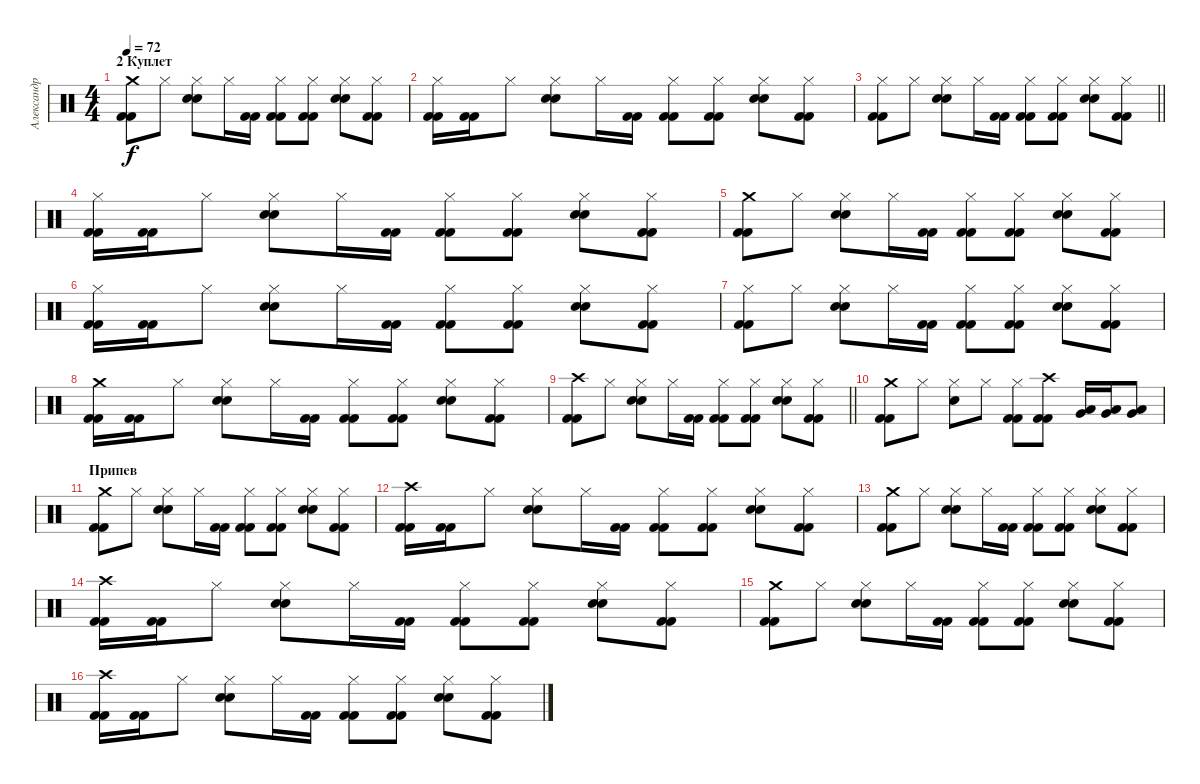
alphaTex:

\track ("Александр Манякин (Drums)" "Александр ") {instrument percussion}
\staff {score}
\articulation defaults
\ts (4 4)
\section ("" "2 Куплет")
\tempo 72
\clef neutral
\ks c
("Crash medium (hit)" "Kick (hit) 2" "Kick (hit) 2").8{dy f} "Hi-Hat (closed)".8 ("Hi-Hat (closed)" "Electric Snare (hit)" "Electric Snare (hit)").8 "Hi-Hat (closed)".16 ("Kick (hit) 2" "Kick (hit) 2").16 ("Hi-Hat (closed)" "Kick (hit) 2" "Kick (hit) 2").8 ("Hi-Hat (closed)" "Kick (hit) 2" "Kick (hit) 2").8 ("Hi-Hat (closed)" "Electric Snare (hit)" "Electric Snare (hit)").8 ("Hi-Hat (closed)" "Kick (hit) 2" "Kick (hit) 2").8 |
("Hi-Hat (closed)" "Kick (hit) 2" "Kick (hit) 2").16 ("Kick (hit) 2" "Kick (hit) 2").16 "Hi-Hat (closed)".8 ("Hi-Hat (closed)" "Electric Snare (hit)" "Electric Snare (hit)").8 "Hi-Hat (closed)".16 ("Kick (hit) 2" "Kick (hit) 2").16 ("Hi-Hat (closed)" "Kick (hit) 2" "Kick (hit) 2").8 ("Hi-Hat (closed)" "Kick (hit) 2" "Kick (hit) 2").8 ("Hi-Hat (closed)" "Electric Snare (hit)" "Electric Snare (hit)").8 ("Hi-Hat (closed)" "Kick (hit) 2" "Kick (hit) 2").8 |
\barLineRight lightlight
("Hi-Hat (closed)" "Kick (hit) 2" "Kick (hit) 2").8 "Hi-Hat (closed)".8 ("Hi-Hat (closed)" "Electric Snare (hit)" "Electric Snare (hit)").8 "Hi-Hat (closed)".16 ("Kick (hit) 2" "Kick (hit) 2").16 ("Hi-Hat (closed)" "Kick (hit) 2" "Kick (hit) 2").8 ("Hi-Hat (closed)" "Kick (hit) 2" "Kick (hit) 2").8 ("Hi-Hat (closed)" "Electric Snare (hit)" "Electric Snare (hit)").8 ("Hi-Hat (closed)" "Kick (hit) 2" "Kick (hit) 2").8 |
("Hi-Hat (closed)" "Kick (hit) 2" "Kick (hit) 2").16 ("Kick (hit) 2" "Kick (hit) 2").16 "Hi-Hat (closed)".8 ("Hi-Hat (closed)" "Electric Snare (hit)" "Electric Snare (hit)").8 "Hi-Hat (closed)".16 ("Kick (hit) 2" "Kick (hit) 2").16 ("Hi-Hat (closed)" "Kick (hit) 2" "Kick (hit) 2").8 ("Hi-Hat (closed)" "Kick (hit) 2" "Kick (hit) 2").8 ("Hi-Hat (closed)" "Electric Snare (hit)" "Electric Snare (hit)").8 ("Hi-Hat (closed)" "Kick (hit) 2" "Kick (hit) 2").8 |
("Crash medium (hit)" "Kick (hit) 2" "Kick (hit) 2").8 "Hi-Hat (closed)".8 ("Hi-Hat (closed)" "Electric Snare (hit)" "Electric Snare (hit)").8 "Hi-Hat (closed)".16 ("Kick (hit) 2" "Kick (hit) 2").16 ("Hi-Hat (closed)" "Kick (hit) 2" "Kick (hit) 2").8 ("Hi-Hat (closed)" "Kick (hit) 2" "Kick (hit) 2").8 ("Hi-Hat (closed)" "Electric Snare (hit)" "Electric Snare (hit)").8 ("Hi-Hat (closed)" "Kick (hit) 2" "Kick (hit) 2").8 |
("Hi-Hat (closed)" "Kick (hit) 2" "Kick (hit) 2").16 ("Kick (hit) 2" "Kick (hit) 2").16 "Hi-Hat (closed)".8 ("Hi-Hat (closed)" "Electric Snare (hit)" "Electric Snare (hit)").8 "Hi-Hat (closed)".16 ("Kick (hit) 2" "Kick (hit) 2").16 ("Hi-Hat (closed)" "Kick (hit) 2" "Kick (hit) 2").8 ("Hi-Hat (closed)" "Kick (hit) 2" "Kick (hit) 2").8 ("Hi-Hat (closed)" "Electric Snare (hit)" "Electric Snare (hit)").8 ("Hi-Hat (closed)" "Kick (hit) 2" "Kick (hit) 2").8 |
("Hi-Hat (closed)" "Kick (hit) 2" "Kick (hit) 2").8 "Hi-Hat (closed)".8 ("Hi-Hat (closed)" "Electric Snare (hit)" "Electric Snare (hit)").8 "Hi-Hat (closed)".16 ("Kick (hit) 2" "Kick (hit) 2").16 ("Hi-Hat (closed)" "Kick (hit) 2" "Kick (hit) 2").8 ("Hi-Hat (closed)" "Kick (hit) 2" "Kick (hit) 2").8 ("Hi-Hat (closed)" "Electric Snare (hit)" "Electric Snare (hit)").8 ("Hi-Hat (closed)" "Kick (hit) 2" "Kick (hit) 2").8 |
("Crash medium (hit)" "Kick (hit) 2" "Kick (hit) 2").16 ("Kick (hit) 2" "Kick (hit) 2").16 "Hi-Hat (closed)".8 ("Hi-Hat (closed)" "Electric Snare (hit)" "Electric Snare (hit)").8 "Hi-Hat (closed)".16 ("Kick (hit) 2" "Kick (hit) 2").16 ("Hi-Hat (closed)" "Kick (hit) 2" "Kick (hit) 2").8 ("Hi-Hat (closed)" "Kick (hit) 2" "Kick (hit) 2").8 ("Hi-Hat (closed)" "Electric Snare (hit)" "Electric Snare (hit)").8 ("Hi-Hat (closed)" "Kick (hit) 2" "Kick (hit) 2").8 |
\barLineRight lightlight
("Crash high (hit)" "Kick (hit) 2" "Kick (hit) 2").8 "Hi-Hat (closed)".8 ("Hi-Hat (closed)" "Electric Snare (hit)" "Electric Snare (hit)").8 "Hi-Hat (closed)".16 ("Kick (hit) 2" "Kick (hit) 2").16 ("Hi-Hat (closed)" "Kick (hit) 2" "Kick (hit) 2").8 ("Hi-Hat (closed)" "Kick (hit) 2" "Kick (hit) 2").8 ("Hi-Hat (closed)" "Electric Snare (hit)" "Electric Snare (hit)").8 ("Hi-Hat (closed)" "Kick (hit) 2" "Kick (hit) 2").8 |
("Crash medium (hit)" "Kick (hit) 2" "Kick (hit) 2").8 "Hi-Hat (closed)".8 ("Hi-Hat (closed)" "Electric Snare (hit)").8 "Hi-Hat (closed)".8 ("Hi-Hat (closed)" "Kick (hit) 2" "Kick (hit) 2").8 ("Crash high (hit)" "Kick (hit) 2" "Kick (hit) 2").8 ("Low Tom (hit)" "Very Low Tom (hit)").16 ("Low Tom (hit)" "Very Low Tom (hit)").16 ("Low Tom (hit)" "Very Low Tom (hit)").8 |
\section ("" "Припев")
("Crash medium (hit)" "Kick (hit) 2" "Kick (hit) 2").8 "Hi-Hat (closed)".8 ("Hi-Hat (closed)" "Electric Snare (hit)" "Electric Snare (hit)").8 "Hi-Hat (closed)".16 ("Kick (hit) 2" "Kick (hit) 2").16 ("Hi-Hat (closed)" "Kick (hit) 2" "Kick (hit) 2").8 ("Hi-Hat (closed)" "Kick (hit) 2" "Kick (hit) 2").8 ("Hi-Hat (closed)" "Electric Snare (hit)" "Electric Snare (hit)").8 ("Hi-Hat (closed)" "Kick (hit) 2" "Kick (hit) 2").8 |
("Crash high (hit)" "Kick (hit) 2" "Kick (hit) 2").16 ("Kick (hit) 2" "Kick (hit) 2").16 "Hi-Hat (closed)".8 ("Hi-Hat (closed)" "Electric Snare (hit)" "Electric Snare (hit)").8 "Hi-Hat (closed)".16 ("Kick (hit) 2" "Kick (hit) 2").16 ("Hi-Hat (closed)" "Kick (hit) 2" "Kick (hit) 2").8 ("Hi-Hat (closed)" "Kick (hit) 2" "Kick (hit) 2").8 ("Hi-Hat (closed)" "Electric Snare (hit)" "Electric Snare (hit)").8 ("Hi-Hat (closed)" "Kick (hit) 2" "Kick (hit) 2").8 |
("Crash medium (hit)" "Kick (hit) 2" "Kick (hit) 2").8 "Hi-Hat (closed)".8 ("Hi-Hat (closed)" "Electric Snare (hit)" "Electric Snare (hit)").8 "Hi-Hat (closed)".16 ("Kick (hit) 2" "Kick (hit) 2").16 ("Hi-Hat (closed)" "Kick (hit) 2" "Kick (hit) 2").8 ("Hi-Hat (closed)" "Kick (hit) 2" "Kick (hit) 2").8 ("Hi-Hat (closed)" "Electric Snare (hit)" "Electric Snare (hit)").8 ("Hi-Hat (closed)" "Kick (hit) 2" "Kick (hit) 2").8 |
("Crash high (hit)" "Kick (hit) 2" "Kick (hit) 2").16 ("Kick (hit) 2" "Kick (hit) 2").16 "Hi-Hat (closed)".8 ("Hi-Hat (closed)" "Electric Snare (hit)" "Electric Snare (hit)").8 "Hi-Hat (closed)".16 ("Kick (hit) 2" "Kick (hit) 2").16 ("Hi-Hat (closed)" "Kick (hit) 2" "Kick (hit) 2").8 ("Hi-Hat (closed)" "Kick (hit) 2" "Kick (hit) 2").8 ("Hi-Hat (closed)" "Electric Snare (hit)" "Electric Snare (hit)").8 ("Hi-Hat (closed)" "Kick (hit) 2" "Kick (hit) 2").8 |
("Crash medium (hit)" "Kick (hit) 2" "Kick (hit) 2").8 "Hi-Hat (closed)".8 ("Hi-Hat (closed)" "Electric Snare (hit)" "Electric Snare (hit)").8 "Hi-Hat (closed)".16 ("Kick (hit) 2" "Kick (hit) 2").16 ("Hi-Hat (closed)" "Kick (hit) 2" "Kick (hit) 2").8 ("Hi-Hat (closed)" "Kick (hit) 2" "Kick (hit) 2").8 ("Hi-Hat (closed)" "Electric Snare (hit)" "Electric Snare (hit)").8 ("Hi-Hat (closed)" "Kick (hit) 2" "Kick (hit) 2").8 |
("Crash high (hit)" "Kick (hit) 2" "Kick (hit) 2").16 ("Kick (hit) 2" "Kick (hit) 2").16 "Hi-Hat (closed)".8 ("Hi-Hat (closed)" "Electric Snare (hit)" "Electric Snare (hit)").8 "Hi-Hat (closed)".16 ("Kick (hit) 2" "Kick (hit) 2").16 ("Hi-Hat (closed)" "Kick (hit) 2" "Kick (hit) 2").8 ("Hi-Hat (closed)" "Kick (hit) 2" "Kick (hit) 2").8 ("Hi-Hat (closed)" "Electric Snare (hit)" "Electric Snare (hit)").8 ("Hi-Hat (closed)" "Kick (hit) 2" "Kick (hit) 2").8
